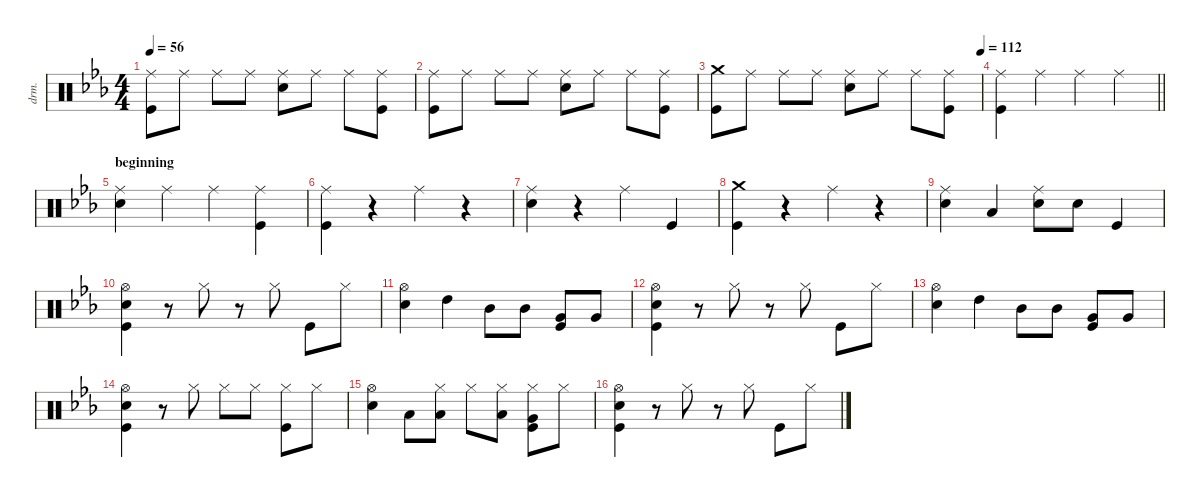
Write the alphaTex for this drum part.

\defaultSystemsLayout 4
\hideDynamics
\bracketExtendMode nobrackets
\otherSystemsTrackNameOrientation horizontal
\track ("Percussion" "drm.") {instrument percussion}
\staff {score}
\articulation defaults
\ts (4 4)
\tempo 56
\clef neutral
\ks cminor
("Ride (middle)"{acc forcenatural} "Kick (hit)"{acc forcenatural}).8{dy f} "Ride (middle)"{acc forcenatural}.8 "Ride (middle)"{acc forcenatural}.8 "Ride (middle)"{acc forcenatural}.8 ("Snare (hit) 2"{acc forcenatural} "Ride (middle)"{acc forcenatural}).8 "Ride (middle)"{acc forcenatural}.8 "Ride (middle)"{acc forcenatural}.8 ("Kick (hit)"{acc forcenatural} "Ride (middle)"{acc forcenatural}).8 |
("Ride (middle)"{acc forcenatural} "Kick (hit)"{acc forcenatural}).8 "Ride (middle)"{acc forcenatural}.8 "Ride (middle)"{acc forcenatural}.8 "Ride (middle)"{acc forcenatural}.8 ("Snare (hit) 2"{acc forcenatural} "Ride (middle)"{acc forcenatural}).8 "Ride (middle)"{acc forcenatural}.8 "Ride (middle)"{acc forcenatural}.8 ("Kick (hit)"{acc forcenatural} "Ride (middle)"{acc forcenatural}).8 |
\tempo (112 1)
("Crash medium (hit)"{acc forcenatural} "Kick (hit)"{acc forcenatural}).8 "Ride (middle)"{acc forcenatural}.8 "Ride (middle)"{acc forcenatural}.8 "Ride (middle)"{acc forcenatural}.8 ("Snare (hit) 2"{acc forcenatural} "Ride (middle)"{acc forcenatural}).8 "Ride (middle)"{acc forcenatural}.8 "Ride (middle)"{acc forcenatural}.8 ("Kick (hit)"{acc forcenatural} "Ride (middle)"{acc forcenatural}).8 |
\barLineRight lightlight
("Ride (middle)"{acc forcenatural} "Kick (hit)"{acc forcenatural}).4 "Ride (middle)"{acc forcenatural}.4 "Ride (middle)"{acc forcenatural}.4 "Ride (middle)"{acc forcenatural}.4 |
\section ("" "beginning")
("Snare (hit) 2"{acc forcenatural} "Ride (middle)"{acc forcenatural}).4 "Ride (middle)"{acc forcenatural}.4 "Ride (middle)"{acc forcenatural}.4 ("Kick (hit)"{acc forcenatural} "Ride (middle)"{acc forcenatural}).4 |
("Ride (middle)"{acc forcenatural} "Kick (hit)"{acc forcenatural}).4 r.4 "Ride (middle)"{acc forcenatural}.4 r.4 |
("Snare (hit) 2"{acc forcenatural} "Ride (middle)"{acc forcenatural}).4 r.4 "Ride (middle)"{acc forcenatural}.4 "Kick (hit)"{acc forcenatural}.4 |
("Crash medium (hit)"{acc forcenatural} "Kick (hit)"{acc forcenatural}).4 r.4 "Ride (middle)"{acc forcenatural}.4 r.4 |
("Snare (hit) 2"{acc forcenatural} "Ride (middle)"{acc forcenatural}).4 "Low Floor Tom (hit)"{acc forcenatural}.4 ("Snare (hit) 2"{acc forcenatural} "Ride (middle)"{acc forcenatural}).8 "Snare (hit) 2"{acc forcenatural}.8 "Kick (hit)"{acc forcenatural}.4 |
("Hi-Hat (open)"{acc forcenatural} "Kick (hit)"{acc forcenatural} "Snare (hit) 2"{acc forcenatural}).4 r.8 "Hi-Hat (closed)"{acc forcenatural}.8 r.8 "Hi-Hat (closed)"{acc forcenatural}.8 "Kick (hit)"{acc forcenatural}.8 "Hi-Hat (closed)"{acc forcenatural}.8 |
("Snare (hit) 2"{acc forcenatural} "Hi-Hat (open)"{acc forcenatural}).4 "High Tom (hit)"{acc forcenatural}.4 "Mid Tom (hit)"{acc forcenatural}.8 "Mid Tom (hit)"{acc forcenatural}.8 ("Very Low Tom (hit)"{acc forcenatural} "Kick (hit)"{acc forcenatural}).8 "Very Low Tom (hit)"{acc forcenatural}.8 |
("Hi-Hat (open)"{acc forcenatural} "Kick (hit)"{acc forcenatural} "Snare (hit) 2"{acc forcenatural}).4 r.8 "Hi-Hat (closed)"{acc forcenatural}.8 r.8 "Hi-Hat (closed)"{acc forcenatural}.8 "Kick (hit)"{acc forcenatural}.8 "Hi-Hat (closed)"{acc forcenatural}.8 |
("Snare (hit) 2"{acc forcenatural} "Hi-Hat (open)"{acc forcenatural}).4 "High Tom (hit)"{acc forcenatural}.4 "Mid Tom (hit)"{acc forcenatural}.8 "Mid Tom (hit)"{acc forcenatural}.8 ("Very Low Tom (hit)"{acc forcenatural} "Kick (hit)"{acc forcenatural}).8 "Very Low Tom (hit)"{acc forcenatural}.8 |
("Hi-Hat (open)"{acc forcenatural} "Kick (hit)"{acc forcenatural} "Snare (hit) 2"{acc forcenatural}).4 r.8 "Hi-Hat (closed)"{acc forcenatural}.8 "Hi-Hat (closed)"{acc forcenatural}.8 "Hi-Hat (closed)"{acc forcenatural}.8 ("Kick (hit)"{acc forcenatural} "Hi-Hat (closed)"{acc forcenatural}).8 "Hi-Hat (closed)"{acc forcenatural}.8 |
("Snare (hit) 2"{acc forcenatural} "Hi-Hat (open)"{acc forcenatural}).4 "Low Tom (hit)"{acc forcenatural}.8 ("Low Tom (hit)"{acc forcenatural} "Hi-Hat (closed)"{acc forcenatural}).8 "Hi-Hat (closed)"{acc forcenatural}.8 ("Low Tom (hit)"{acc forcenatural} "Hi-Hat (closed)"{acc forcenatural}).8 ("Very Low Tom (hit)"{acc forcenatural} "Kick (hit)"{acc forcenatural} "Hi-Hat (closed)"{acc forcenatural}).8 "Hi-Hat (closed)"{acc forcenatural}.8 |
("Hi-Hat (open)"{acc forcenatural} "Kick (hit)"{acc forcenatural} "Snare (hit) 2"{acc forcenatural}).4 r.8 "Hi-Hat (closed)"{acc forcenatural}.8 r.8 "Hi-Hat (closed)"{acc forcenatural}.8 "Kick (hit)"{acc forcenatural}.8 "Hi-Hat (closed)"{acc forcenatural}.8
